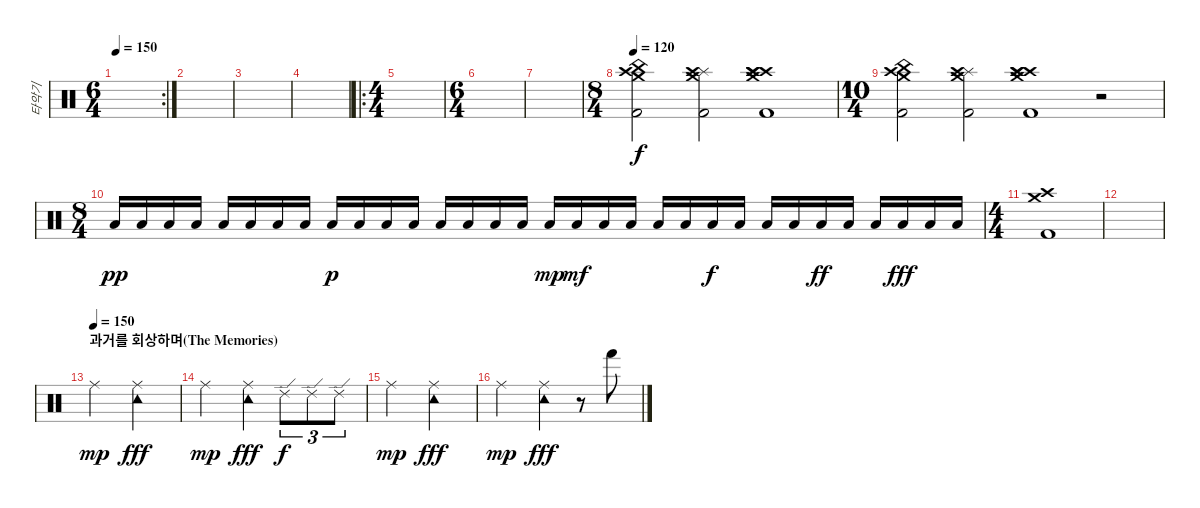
\track ("타악기" "타악기") {instrument percussion}
\staff {score}
\articulation defaults
\rc 2
\ts (6 4)
\tempo 150
\clef neutral
\ks c
|
|
|
|
\ro
\ts (4 4)
|
\ts (6 4)
|
|
\ts (8 4)
\tempo 120
("Kick (hit) 2" "Crash medium (hit)" "Crash high (hit)" "China (hit)").2 ("Kick (hit) 2" "Crash medium (hit)" "Splash (hit)" "Crash high (hit)").2 ("Crash high (hit)" "Crash high (hit)" "Crash high (hit)" "Kick (hit) 2" "Crash medium (hit)").1 |
\ts (10 4)
("Kick (hit) 2" "Crash medium (hit)" "Crash high (hit)" "China (hit)").2 ("Kick (hit) 2" "Crash medium (hit)" "Splash (hit)" "Crash high (hit)").2 ("Crash high (hit)" "Crash high (hit)" "Crash high (hit)" "Kick (hit) 2" "Crash medium (hit)").1 r.2 |
\ts (8 4)
"Low Floor Tom (hit)".16{dy pp} "Low Floor Tom (hit)".16 "Low Floor Tom (hit)".16 "Low Floor Tom (hit)".16 "Low Floor Tom (hit)".16 "Low Floor Tom (hit)".16 "Low Floor Tom (hit)".16 "Low Floor Tom (hit)".16 "Low Floor Tom (hit)".16{dy p} "Low Floor Tom (hit)".16 "Low Floor Tom (hit)".16 "Low Floor Tom (hit)".16 "Low Floor Tom (hit)".16 "Low Floor Tom (hit)".16 "Low Floor Tom (hit)".16 "Low Floor Tom (hit)".16 "Low Floor Tom (hit)".16{dy mp} "Low Floor Tom (hit)".16{dy mf} "Low Floor Tom (hit)".16 "Low Floor Tom (hit)".16 "Low Floor Tom (hit)".16 "Low Floor Tom (hit)".16 "Low Floor Tom (hit)".16{dy f} "Low Floor Tom (hit)".16 "Low Floor Tom (hit)".16 "Low Floor Tom (hit)".16 "Low Floor Tom (hit)".16{dy ff} "Low Floor Tom (hit)".16 "Low Floor Tom (hit)".16 "Low Floor Tom (hit)".16{dy fff} "Low Floor Tom (hit)".16 "Low Floor Tom (hit)".16 |
\ts (4 4)
("Crash medium (hit)" "Kick (hit) 2" "Crash high (hit)").1 |
|
\section ("" "과거를 회상하며(The Memories)")
\tempo (150)
"Ride (middle)".2{dy mp} ("Ride (middle)" "Tambourine (hit)").2{dy fff} |
"Ride (middle)".2{dy mp} ("Ride (middle)" "Tambourine (hit)").4{dy fff} "Ride (edge) 2".8{tu (3 2) dy f} "Ride (edge) 2".8{tu (3 2)} "Ride (edge) 2".8{tu (3 2)} |
"Ride (middle)".2{dy mp} ("Ride (middle)" "Tambourine (hit)").2{dy fff} |
"Ride (middle)".2{dy mp} ("Ride (middle)" "Tambourine (hit)").4{dy fff} r.8 "Hand (hit)".8
